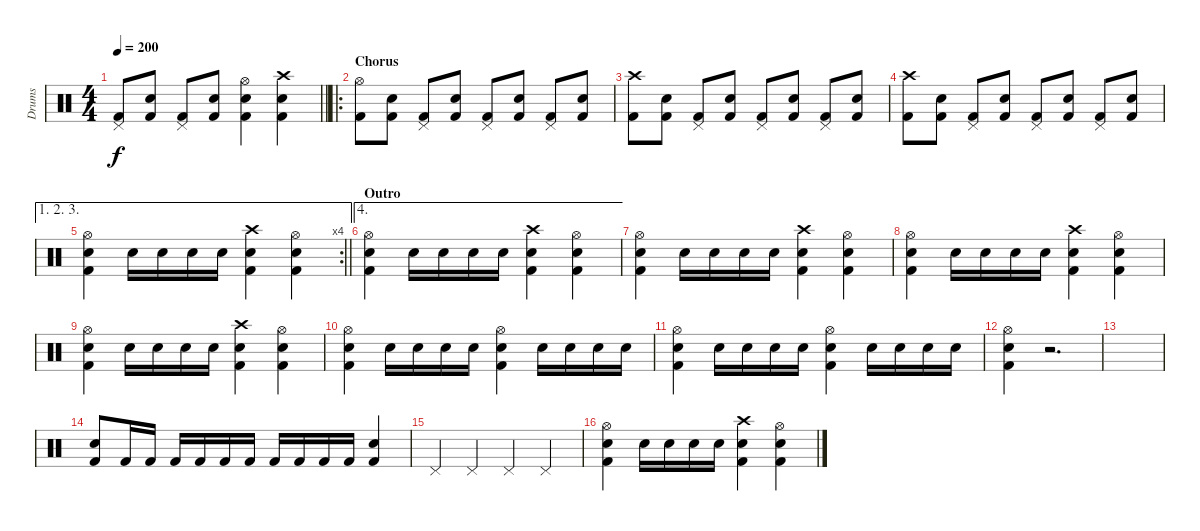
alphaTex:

\track ("Drums" "Drums") {instrument percussion}
\staff {score}
\articulation defaults
\ts (4 4)
\tempo 200
\clef neutral
\barLineRight lightlight
\ks c
("Pedal Hi-Hat (hit)" "Kick (hit) 2").8{dy f} ("Snare (hit) 2" "Kick (hit) 2").8 ("Pedal Hi-Hat (hit)" "Kick (hit) 2").8 ("Snare (hit) 2" "Kick (hit) 2").8 ("Hi-Hat (open)" "Snare (hit) 2" "Kick (hit) 2").4 ("Crash high (hit)" "Snare (hit) 2" "Kick (hit) 2").4 |
\ro
\section ("" "Chorus")
("Hi-Hat (open)" "Kick (hit) 2").8 ("Snare (hit) 2" "Kick (hit) 2").8 ("Pedal Hi-Hat (hit)" "Kick (hit) 2").8 ("Snare (hit) 2" "Kick (hit) 2").8 ("Pedal Hi-Hat (hit)" "Kick (hit) 2").8 ("Snare (hit) 2" "Kick (hit) 2").8 ("Pedal Hi-Hat (hit)" "Kick (hit) 2").8 ("Snare (hit) 2" "Kick (hit) 2").8 |
("Crash high (hit)" "Kick (hit) 2").8 ("Snare (hit) 2" "Kick (hit) 2").8 ("Pedal Hi-Hat (hit)" "Kick (hit) 2").8 ("Snare (hit) 2" "Kick (hit) 2").8 ("Pedal Hi-Hat (hit)" "Kick (hit) 2").8 ("Snare (hit) 2" "Kick (hit) 2").8 ("Pedal Hi-Hat (hit)" "Kick (hit) 2").8 ("Snare (hit) 2" "Kick (hit) 2").8 |
("Crash high (hit)" "Kick (hit) 2").8 ("Snare (hit) 2" "Kick (hit) 2").8 ("Pedal Hi-Hat (hit)" "Kick (hit) 2").8 ("Snare (hit) 2" "Kick (hit) 2").8 ("Pedal Hi-Hat (hit)" "Kick (hit) 2").8 ("Snare (hit) 2" "Kick (hit) 2").8 ("Pedal Hi-Hat (hit)" "Kick (hit) 2").8 ("Snare (hit) 2" "Kick (hit) 2").8 |
\ae (1 2 3)
\rc 4
\barLineRight lightlight
("Hi-Hat (open)" "Snare (hit) 2" "Kick (hit) 2").4 "Snare (hit) 2".16 "Snare (hit) 2".16 "Snare (hit) 2".16 "Snare (hit) 2".16 ("Crash high (hit)" "Snare (hit) 2" "Kick (hit) 2").4 ("Hi-Hat (open)" "Snare (hit) 2" "Kick (hit) 2").4 |
\ae 4
\section ("" "Outro")
("Hi-Hat (open)" "Snare (hit) 2" "Kick (hit) 2").4 "Snare (hit) 2".16 "Snare (hit) 2".16 "Snare (hit) 2".16 "Snare (hit) 2".16 ("Crash high (hit)" "Snare (hit) 2" "Kick (hit) 2").4 ("Hi-Hat (open)" "Snare (hit) 2" "Kick (hit) 2").4 |
("Hi-Hat (open)" "Snare (hit) 2" "Kick (hit) 2").4 "Snare (hit) 2".16 "Snare (hit) 2".16 "Snare (hit) 2".16 "Snare (hit) 2".16 ("Crash high (hit)" "Snare (hit) 2" "Kick (hit) 2").4 ("Hi-Hat (open)" "Snare (hit) 2" "Kick (hit) 2").4 |
("Hi-Hat (open)" "Snare (hit) 2" "Kick (hit) 2").4 "Snare (hit) 2".16 "Snare (hit) 2".16 "Snare (hit) 2".16 "Snare (hit) 2".16 ("Crash high (hit)" "Snare (hit) 2" "Kick (hit) 2").4 ("Hi-Hat (open)" "Snare (hit) 2" "Kick (hit) 2").4 |
("Hi-Hat (open)" "Snare (hit) 2" "Kick (hit) 2").4 "Snare (hit) 2".16 "Snare (hit) 2".16 "Snare (hit) 2".16 "Snare (hit) 2".16 ("Crash high (hit)" "Snare (hit) 2" "Kick (hit) 2").4 ("Hi-Hat (open)" "Snare (hit) 2" "Kick (hit) 2").4 |
("Hi-Hat (open)" "Snare (hit) 2" "Kick (hit) 2").4 "Snare (hit) 2".16 "Snare (hit) 2".16 "Snare (hit) 2".16 "Snare (hit) 2".16 ("Hi-Hat (open)" "Snare (hit) 2" "Kick (hit) 2").4 "Snare (hit) 2".16 "Snare (hit) 2".16 "Snare (hit) 2".16 "Snare (hit) 2".16 |
("Hi-Hat (open)" "Snare (hit) 2" "Kick (hit) 2").4 "Snare (hit) 2".16 "Snare (hit) 2".16 "Snare (hit) 2".16 "Snare (hit) 2".16 ("Hi-Hat (open)" "Snare (hit) 2" "Kick (hit) 2").4 "Snare (hit) 2".16 "Snare (hit) 2".16 "Snare (hit) 2".16 "Snare (hit) 2".16 |
("Hi-Hat (open)" "Snare (hit) 2" "Kick (hit) 2").4 r.2{d} |
|
("Snare (hit) 2" "Kick (hit) 2").8 "Kick (hit) 2".16 "Kick (hit) 2".16 "Kick (hit) 2".16 "Kick (hit) 2".16 "Kick (hit) 2".16 "Kick (hit) 2".16 "Kick (hit) 2".16 "Kick (hit) 2".16 "Kick (hit) 2".16 "Kick (hit) 2".16 ("Snare (hit) 2" "Kick (hit) 2").4 |
"Pedal Hi-Hat (hit)".4 "Pedal Hi-Hat (hit)".4 "Pedal Hi-Hat (hit)".4 "Pedal Hi-Hat (hit)".4 |
("Hi-Hat (open)" "Snare (hit) 2" "Kick (hit) 2").4 "Snare (hit) 2".16 "Snare (hit) 2".16 "Snare (hit) 2".16 "Snare (hit) 2".16 ("Crash high (hit)" "Snare (hit) 2" "Kick (hit) 2").4 ("Hi-Hat (open)" "Snare (hit) 2" "Kick (hit) 2").4
